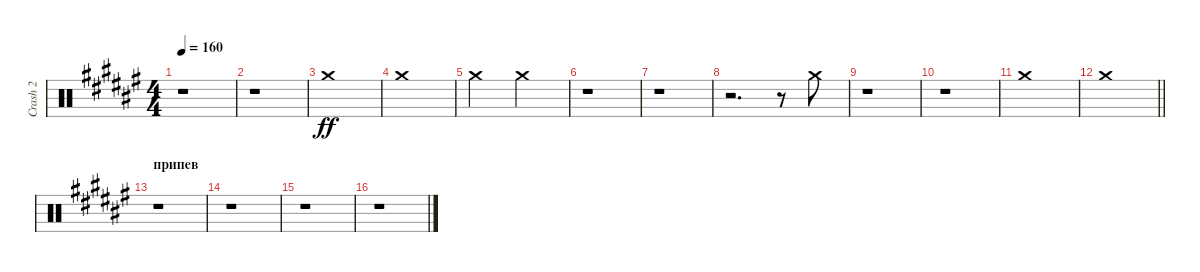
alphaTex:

\track ("Crash 2" "Crash 2") {instrument percussion}
\staff {score}
\articulation defaults
\ts (4 4)
\tempo 160
\clef neutral
\ks d#minor
r.1{dy ff} |
r.1 |
"Crash medium (hit)".1 |
"Crash medium (hit)".1 |
"Crash medium (hit)".2 "Crash medium (hit)".2 |
r.1 |
r.1 |
r.2{d} r.8 "Crash medium (hit)".8 |
r.1 |
r.1 |
"Crash medium (hit)".1 |
\barLineRight lightlight "Crash medium (hit)".1
|
\section ("" "припев")
r.1 |
r.1 |
r.1 |
r.1
